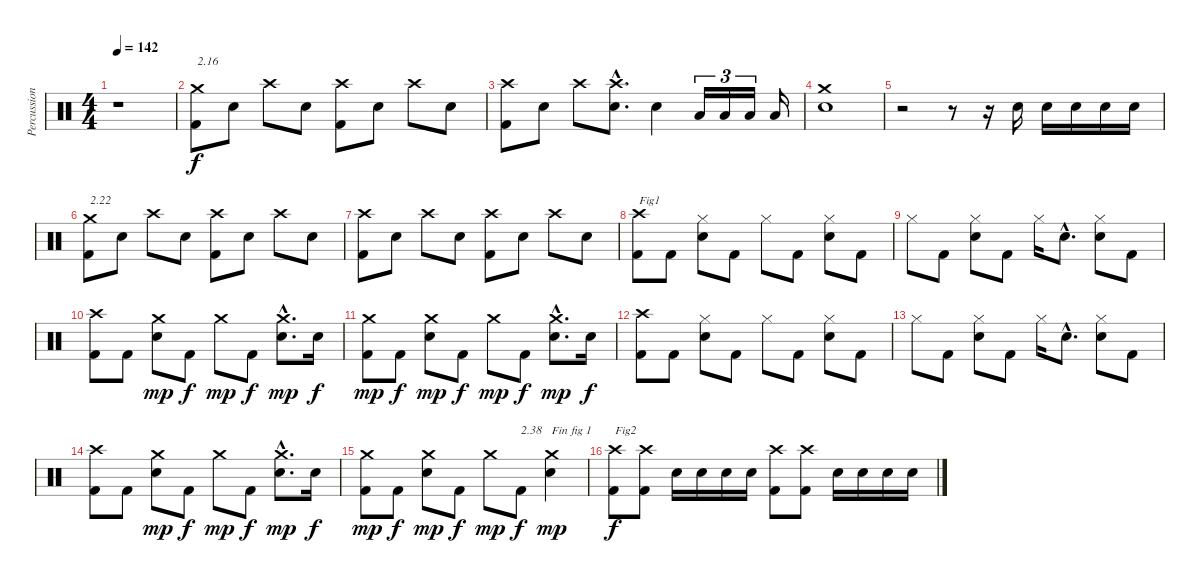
\track ("Percussions" "Percussion") {instrument percussion}
\staff {score}
\articulation defaults
\ts (4 4)
\tempo 142
\clef neutral
\ks c
r.1{dy f} |
("Kick (hit) 2" "Crash medium (hit)").8{txt "2.16"} "Electric Snare (hit)".8 "Crash high (hit)".8 "Electric Snare (hit)".8 ("Kick (hit) 2" "Crash high (hit)").8 "Electric Snare (hit)".8 "Crash high (hit)".8 "Electric Snare (hit)".8 |
("Kick (hit) 2" "Crash high (hit)").8 "Electric Snare (hit)".8 "Crash high (hit)".8 ("Electric Snare (hit)"{hac} "Crash high (hit)"{hac}).8{d} "Electric Snare (hit)".4 "Low Floor Tom (hit)".16{tu (3 2)} "Low Floor Tom (hit)".16{tu (3 2)} "Low Floor Tom (hit)".16{tu (3 2)} "Low Floor Tom (hit)".16 |
("Electric Snare (hit)" "Crash medium (hit)").1 |
r.2 r.8 r.16 "Electric Snare (hit)".16 "Electric Snare (hit)".16 "Electric Snare (hit)".16 "Electric Snare (hit)".16 "Electric Snare (hit)".16 |
("Kick (hit) 2" "Crash medium (hit)").8{txt "2.22"} "Electric Snare (hit)".8 "Crash high (hit)".8 "Electric Snare (hit)".8 ("Kick (hit) 2" "Crash high (hit)").8 "Electric Snare (hit)".8 "Crash high (hit)".8 "Electric Snare (hit)".8 |
("Kick (hit) 2" "Crash high (hit)").8 "Electric Snare (hit)".8 "Crash high (hit)".8 "Electric Snare (hit)".8 ("Kick (hit) 2" "Crash high (hit)").8 "Electric Snare (hit)".8 "Crash high (hit)".8 "Electric Snare (hit)".8 |
("Kick (hit) 2" "Crash high (hit)").8{txt "Fig1"} "Kick (hit) 2".8 ("Electric Snare (hit)" "Hi-Hat (closed)").8 "Kick (hit) 2".8 "Hi-Hat (closed)".8 "Kick (hit) 2".8 ("Electric Snare (hit)" "Hi-Hat (closed)").8 "Kick (hit) 2".8 |
"Hi-Hat (closed)".8 "Kick (hit) 2".8 ("Electric Snare (hit)" "Hi-Hat (closed)").8 "Kick (hit) 2".8 "Hi-Hat (closed)".16 "Electric Snare (hit)"{hac}.8{d} ("Electric Snare (hit)" "Hi-Hat (closed)").8 "Kick (hit) 2".8 |
("Kick (hit) 2" "Crash high (hit)").8 "Kick (hit) 2".8 ("Electric Snare (hit)" "Crash medium (hit)").8{dy mp} "Kick (hit) 2".8{dy f} "Crash medium (hit)".8{dy mp} "Kick (hit) 2".8{dy f} ("Electric Snare (hit)"{hac} "Crash medium (hit)"{hac}).8{d dy mp} "Electric Snare (hit)".16{dy f} |
("Kick (hit) 2" "Crash medium (hit)").8{dy mp} "Kick (hit) 2".8{dy f} ("Electric Snare (hit)" "Crash medium (hit)").8{dy mp} "Kick (hit) 2".8{dy f} "Crash medium (hit)".8{dy mp} "Kick (hit) 2".8{dy f} ("Electric Snare (hit)"{hac} "Crash medium (hit)"{hac}).8{d dy mp} "Electric Snare (hit)".16{dy f} |
("Kick (hit) 2" "Crash high (hit)").8 "Kick (hit) 2".8 ("Electric Snare (hit)" "Hi-Hat (closed)").8 "Kick (hit) 2".8 "Hi-Hat (closed)".8 "Kick (hit) 2".8 ("Electric Snare (hit)" "Hi-Hat (closed)").8 "Kick (hit) 2".8 |
"Hi-Hat (closed)".8 "Kick (hit) 2".8 ("Electric Snare (hit)" "Hi-Hat (closed)").8 "Kick (hit) 2".8 "Hi-Hat (closed)".16 "Electric Snare (hit)"{hac}.8{d} ("Electric Snare (hit)" "Hi-Hat (closed)").8 "Kick (hit) 2".8 |
("Kick (hit) 2" "Crash high (hit)").8 "Kick (hit) 2".8 ("Electric Snare (hit)" "Crash medium (hit)").8{dy mp} "Kick (hit) 2".8{dy f} "Crash medium (hit)".8{dy mp} "Kick (hit) 2".8{dy f} ("Electric Snare (hit)"{hac} "Crash medium (hit)"{hac}).8{d dy mp} "Electric Snare (hit)".16{dy f} |
("Kick (hit) 2" "Crash medium (hit)").8{dy mp} "Kick (hit) 2".8{dy f} ("Electric Snare (hit)" "Crash medium (hit)").8{dy mp} "Kick (hit) 2".8{dy f} "Crash medium (hit)".8{dy mp} "Kick (hit) 2".8{txt "2.38" dy f} ("Electric Snare (hit)" "Crash medium (hit)").4{txt "Fin fig 1" dy mp} |
("Kick (hit) 2" "Crash high (hit)").8{txt "Fig2" dy f} ("Kick (hit) 2" "Crash high (hit)").8 "Electric Snare (hit)".16 "Electric Snare (hit)".16 "Electric Snare (hit)".16 "Electric Snare (hit)".16 ("Kick (hit) 2" "Crash high (hit)").8 ("Kick (hit) 2" "Crash high (hit)").8 "Electric Snare (hit)".16 "Electric Snare (hit)".16 "Electric Snare (hit)".16 "Electric Snare (hit)".16
